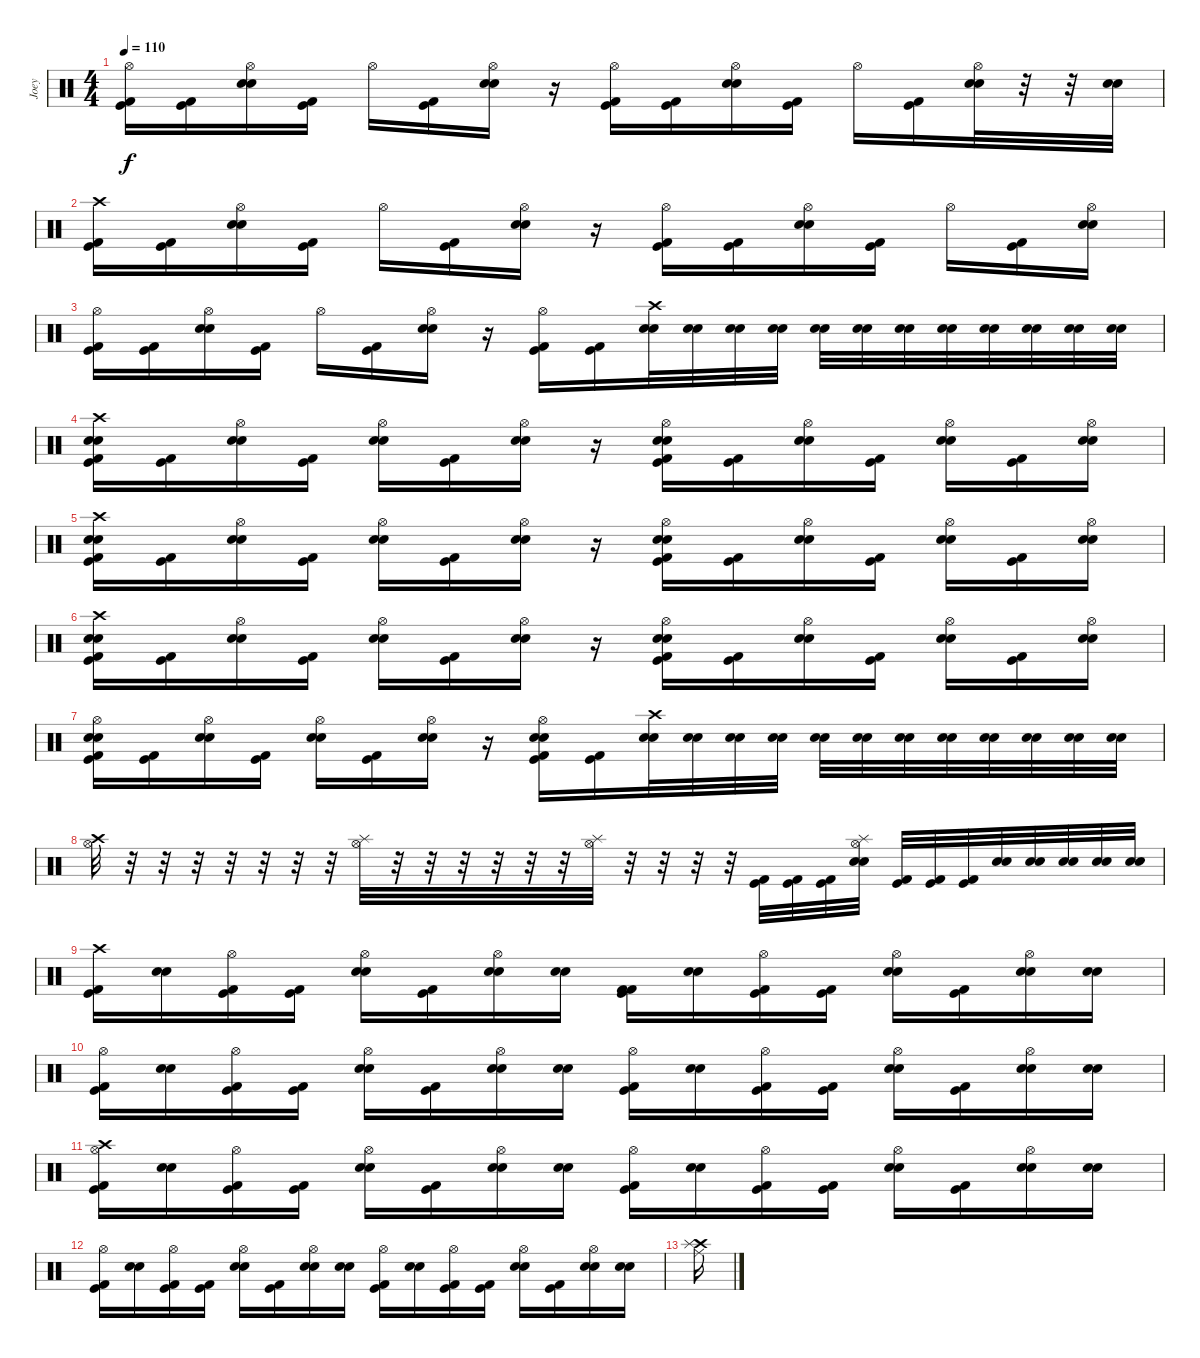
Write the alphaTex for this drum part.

\track ("Joey" "Joey") {instrument percussion}
\staff {score}
\articulation defaults
\ts (4 4)
\tempo 110
\clef neutral
\ks c
("Hi-Hat (open)" "Kick (hit)" "Kick (hit) 2").16{dy f} ("Kick (hit)" "Kick (hit) 2").16 ("Hi-Hat (open)" "Snare (hit) 2" "Electric Snare (hit)").16 ("Kick (hit)" "Kick (hit) 2").16 "Hi-Hat (open)".16 ("Kick (hit)" "Kick (hit) 2").16 ("Hi-Hat (open)" "Snare (hit) 2" "Electric Snare (hit)").16 r.16 ("Hi-Hat (open)" "Kick (hit)" "Kick (hit) 2").16 ("Kick (hit)" "Kick (hit) 2").16 ("Hi-Hat (open)" "Snare (hit) 2" "Electric Snare (hit)").16 ("Kick (hit)" "Kick (hit) 2").16 "Hi-Hat (open)".16 ("Kick (hit)" "Kick (hit) 2").16 ("Hi-Hat (open)" "Snare (hit) 2" "Electric Snare (hit)").32 r.32 r.32 ("Snare (hit) 2" "Electric Snare (hit)").32 |
("Crash high (hit)" "Kick (hit)" "Kick (hit) 2").16 ("Kick (hit)" "Kick (hit) 2").16 ("Hi-Hat (open)" "Snare (hit) 2" "Electric Snare (hit)").16 ("Kick (hit)" "Kick (hit) 2").16 "Hi-Hat (open)".16 ("Kick (hit)" "Kick (hit) 2").16 ("Hi-Hat (open)" "Snare (hit) 2" "Electric Snare (hit)").16 r.16 ("Hi-Hat (open)" "Kick (hit)" "Kick (hit) 2").16 ("Kick (hit)" "Kick (hit) 2").16 ("Hi-Hat (open)" "Snare (hit) 2" "Electric Snare (hit)").16 ("Kick (hit)" "Kick (hit) 2").16 "Hi-Hat (open)".16 ("Kick (hit)" "Kick (hit) 2").16 ("Hi-Hat (open)" "Snare (hit) 2" "Electric Snare (hit)").16 |
("Hi-Hat (open)" "Kick (hit)" "Kick (hit) 2").16 ("Kick (hit)" "Kick (hit) 2").16 ("Hi-Hat (open)" "Snare (hit) 2" "Electric Snare (hit)").16 ("Kick (hit)" "Kick (hit) 2").16 "Hi-Hat (open)".16 ("Kick (hit)" "Kick (hit) 2").16 ("Hi-Hat (open)" "Snare (hit) 2" "Electric Snare (hit)").16 r.16 ("Hi-Hat (open)" "Kick (hit)" "Kick (hit) 2").16 ("Kick (hit)" "Kick (hit) 2").16 ("Crash high (hit)" "Snare (hit) 2" "Electric Snare (hit)").32 ("Snare (hit) 2" "Electric Snare (hit)").32 ("Snare (hit) 2" "Electric Snare (hit)").32 ("Snare (hit) 2" "Electric Snare (hit)").32 ("Snare (hit) 2" "Electric Snare (hit)").32 ("Snare (hit) 2" "Electric Snare (hit)").32 ("Snare (hit) 2" "Electric Snare (hit)").32 ("Snare (hit) 2" "Electric Snare (hit)").32 ("Snare (hit) 2" "Electric Snare (hit)").32 ("Snare (hit) 2" "Electric Snare (hit)").32 ("Snare (hit) 2" "Electric Snare (hit)").32 ("Snare (hit) 2" "Electric Snare (hit)").32 |
("Crash high (hit)" "Snare (hit) 2" "Electric Snare (hit)" "Kick (hit)" "Kick (hit) 2").16 ("Kick (hit)" "Kick (hit) 2").16 ("Hi-Hat (open)" "Snare (hit) 2" "Electric Snare (hit)").16 ("Kick (hit)" "Kick (hit) 2").16 ("Hi-Hat (open)" "Snare (hit) 2" "Electric Snare (hit)").16 ("Kick (hit)" "Kick (hit) 2").16 ("Hi-Hat (open)" "Snare (hit) 2" "Electric Snare (hit)").16 r.16 ("Hi-Hat (open)" "Snare (hit) 2" "Electric Snare (hit)" "Kick (hit)" "Kick (hit) 2").16 ("Kick (hit)" "Kick (hit) 2").16 ("Hi-Hat (open)" "Snare (hit) 2" "Electric Snare (hit)").16 ("Kick (hit)" "Kick (hit) 2").16 ("Hi-Hat (open)" "Snare (hit) 2" "Electric Snare (hit)").16 ("Kick (hit)" "Kick (hit) 2").16 ("Hi-Hat (open)" "Snare (hit) 2" "Electric Snare (hit)").16 |
("Crash high (hit)" "Snare (hit) 2" "Electric Snare (hit)" "Kick (hit)" "Kick (hit) 2").16 ("Kick (hit)" "Kick (hit) 2").16 ("Hi-Hat (open)" "Snare (hit) 2" "Electric Snare (hit)").16 ("Kick (hit)" "Kick (hit) 2").16 ("Hi-Hat (open)" "Snare (hit) 2" "Electric Snare (hit)").16 ("Kick (hit)" "Kick (hit) 2").16 ("Hi-Hat (open)" "Snare (hit) 2" "Electric Snare (hit)").16 r.16 ("Hi-Hat (open)" "Snare (hit) 2" "Electric Snare (hit)" "Kick (hit)" "Kick (hit) 2").16 ("Kick (hit)" "Kick (hit) 2").16 ("Hi-Hat (open)" "Snare (hit) 2" "Electric Snare (hit)").16 ("Kick (hit)" "Kick (hit) 2").16 ("Hi-Hat (open)" "Snare (hit) 2" "Electric Snare (hit)").16 ("Kick (hit)" "Kick (hit) 2").16 ("Hi-Hat (open)" "Snare (hit) 2" "Electric Snare (hit)").16 |
("Crash high (hit)" "Snare (hit) 2" "Electric Snare (hit)" "Kick (hit)" "Kick (hit) 2").16 ("Kick (hit)" "Kick (hit) 2").16 ("Hi-Hat (open)" "Snare (hit) 2" "Electric Snare (hit)").16 ("Kick (hit)" "Kick (hit) 2").16 ("Hi-Hat (open)" "Snare (hit) 2" "Electric Snare (hit)").16 ("Kick (hit)" "Kick (hit) 2").16 ("Hi-Hat (open)" "Snare (hit) 2" "Electric Snare (hit)").16 r.16 ("Hi-Hat (open)" "Snare (hit) 2" "Electric Snare (hit)" "Kick (hit)" "Kick (hit) 2").16 ("Kick (hit)" "Kick (hit) 2").16 ("Hi-Hat (open)" "Snare (hit) 2" "Electric Snare (hit)").16 ("Kick (hit)" "Kick (hit) 2").16 ("Hi-Hat (open)" "Snare (hit) 2" "Electric Snare (hit)").16 ("Kick (hit)" "Kick (hit) 2").16 ("Hi-Hat (open)" "Snare (hit) 2" "Electric Snare (hit)").16 |
("Hi-Hat (open)" "Snare (hit) 2" "Electric Snare (hit)" "Kick (hit)" "Kick (hit) 2").16 ("Kick (hit)" "Kick (hit) 2").16 ("Hi-Hat (open)" "Snare (hit) 2" "Electric Snare (hit)").16 ("Kick (hit)" "Kick (hit) 2").16 ("Hi-Hat (open)" "Snare (hit) 2" "Electric Snare (hit)").16 ("Kick (hit)" "Kick (hit) 2").16 ("Hi-Hat (open)" "Snare (hit) 2" "Electric Snare (hit)").16 r.16 ("Hi-Hat (open)" "Snare (hit) 2" "Electric Snare (hit)" "Kick (hit)" "Kick (hit) 2").16 ("Kick (hit)" "Kick (hit) 2").16 ("Crash high (hit)" "Snare (hit) 2" "Electric Snare (hit)").32 ("Snare (hit) 2" "Electric Snare (hit)").32 ("Snare (hit) 2" "Electric Snare (hit)").32 ("Snare (hit) 2" "Electric Snare (hit)").32 ("Snare (hit) 2" "Electric Snare (hit)").32 ("Snare (hit) 2" "Electric Snare (hit)").32 ("Snare (hit) 2" "Electric Snare (hit)").32 ("Snare (hit) 2" "Electric Snare (hit)").32 ("Snare (hit) 2" "Electric Snare (hit)").32 ("Snare (hit) 2" "Electric Snare (hit)").32 ("Snare (hit) 2" "Electric Snare (hit)").32 ("Snare (hit) 2" "Electric Snare (hit)").32 |
("Crash high (hit)" "Hi-Hat (open)").32 r.32 r.32 r.32 r.32 r.32 r.32 r.32 ("Splash (hit)" "Hi-Hat (open)").32 r.32 r.32 r.32 r.32 r.32 r.32 ("Splash (hit)" "Hi-Hat (open)").32 r.32 r.32 r.32 r.32 ("Kick (hit)" "Kick (hit) 2").32 ("Kick (hit)" "Kick (hit) 2").32 ("Kick (hit)" "Kick (hit) 2").32 ("Splash (hit)" "Hi-Hat (open)" "Snare (hit) 2" "Electric Snare (hit)").32 ("Kick (hit)" "Kick (hit) 2").32 ("Kick (hit)" "Kick (hit) 2").32 ("Kick (hit)" "Kick (hit) 2").32 ("Snare (hit) 2" "Electric Snare (hit)").32 ("Snare (hit) 2" "Electric Snare (hit)").32 ("Snare (hit) 2" "Electric Snare (hit)").32 ("Snare (hit) 2" "Electric Snare (hit)").32 ("Snare (hit) 2" "Electric Snare (hit)").32 |
("Crash high (hit)" "Kick (hit)" "Kick (hit) 2").16 ("Snare (hit) 2" "Electric Snare (hit)").16 ("Hi-Hat (open)" "Kick (hit)" "Kick (hit) 2").16 ("Kick (hit)" "Kick (hit) 2").16 ("Hi-Hat (open)" "Snare (hit) 2" "Electric Snare (hit)").16 ("Kick (hit)" "Kick (hit) 2").16 ("Hi-Hat (open)" "Snare (hit) 2" "Electric Snare (hit)").16 ("Snare (hit) 2" "Electric Snare (hit)").16 ("Kick (hit) 2" "Kick (hit)" "Kick (hit) 2").16 ("Snare (hit) 2" "Electric Snare (hit)").16 ("Hi-Hat (open)" "Kick (hit)" "Kick (hit) 2").16 ("Kick (hit)" "Kick (hit) 2").16 ("Hi-Hat (open)" "Snare (hit) 2" "Electric Snare (hit)").16 ("Kick (hit)" "Kick (hit) 2").16 ("Hi-Hat (open)" "Snare (hit) 2" "Electric Snare (hit)").16 ("Snare (hit) 2" "Electric Snare (hit)").16 |
("Hi-Hat (open)" "Kick (hit)" "Kick (hit) 2").16 ("Snare (hit) 2" "Electric Snare (hit)").16 ("Hi-Hat (open)" "Kick (hit)" "Kick (hit) 2").16 ("Kick (hit)" "Kick (hit) 2").16 ("Hi-Hat (open)" "Snare (hit) 2" "Electric Snare (hit)").16 ("Kick (hit)" "Kick (hit) 2").16 ("Hi-Hat (open)" "Snare (hit) 2" "Electric Snare (hit)").16 ("Snare (hit) 2" "Electric Snare (hit)").16 ("Hi-Hat (open)" "Kick (hit)" "Kick (hit) 2").16 ("Snare (hit) 2" "Electric Snare (hit)").16 ("Hi-Hat (open)" "Kick (hit)" "Kick (hit) 2").16 ("Kick (hit)" "Kick (hit) 2").16 ("Hi-Hat (open)" "Snare (hit) 2" "Electric Snare (hit)").16 ("Kick (hit)" "Kick (hit) 2").16 ("Hi-Hat (open)" "Snare (hit) 2" "Electric Snare (hit)").16 ("Snare (hit) 2" "Electric Snare (hit)").16 |
("Crash high (hit)" "Hi-Hat (open)" "Kick (hit)" "Kick (hit) 2").16 ("Snare (hit) 2" "Electric Snare (hit)").16 ("Hi-Hat (open)" "Kick (hit)" "Kick (hit) 2").16 ("Kick (hit)" "Kick (hit) 2").16 ("Hi-Hat (open)" "Snare (hit) 2" "Electric Snare (hit)").16 ("Kick (hit)" "Kick (hit) 2").16 ("Hi-Hat (open)" "Snare (hit) 2" "Electric Snare (hit)").16 ("Snare (hit) 2" "Electric Snare (hit)").16 ("Hi-Hat (open)" "Kick (hit)" "Kick (hit) 2").16 ("Snare (hit) 2" "Electric Snare (hit)").16 ("Hi-Hat (open)" "Kick (hit)" "Kick (hit) 2").16 ("Kick (hit)" "Kick (hit) 2").16 ("Hi-Hat (open)" "Snare (hit) 2" "Electric Snare (hit)").16 ("Kick (hit)" "Kick (hit) 2").16 ("Hi-Hat (open)" "Snare (hit) 2" "Electric Snare (hit)").16 ("Snare (hit) 2" "Electric Snare (hit)").16 |
("Hi-Hat (open)" "Kick (hit)" "Kick (hit) 2").16 ("Snare (hit) 2" "Electric Snare (hit)").16 ("Hi-Hat (open)" "Kick (hit)" "Kick (hit) 2").16 ("Kick (hit)" "Kick (hit) 2").16 ("Hi-Hat (open)" "Snare (hit) 2" "Electric Snare (hit)").16 ("Kick (hit)" "Kick (hit) 2").16 ("Hi-Hat (open)" "Snare (hit) 2" "Electric Snare (hit)").16 ("Snare (hit) 2" "Electric Snare (hit)").16 ("Hi-Hat (open)" "Kick (hit)" "Kick (hit) 2").16 ("Snare (hit) 2" "Electric Snare (hit)").16 ("Hi-Hat (open)" "Kick (hit)" "Kick (hit) 2").16 ("Kick (hit)" "Kick (hit) 2").16 ("Hi-Hat (open)" "Snare (hit) 2" "Electric Snare (hit)").16 ("Kick (hit)" "Kick (hit) 2").16 ("Hi-Hat (open)" "Snare (hit) 2" "Electric Snare (hit)").16 ("Snare (hit) 2" "Electric Snare (hit)").16 |
("Crash high (hit)" "Splash (hit)" "Ride (middle)").16
